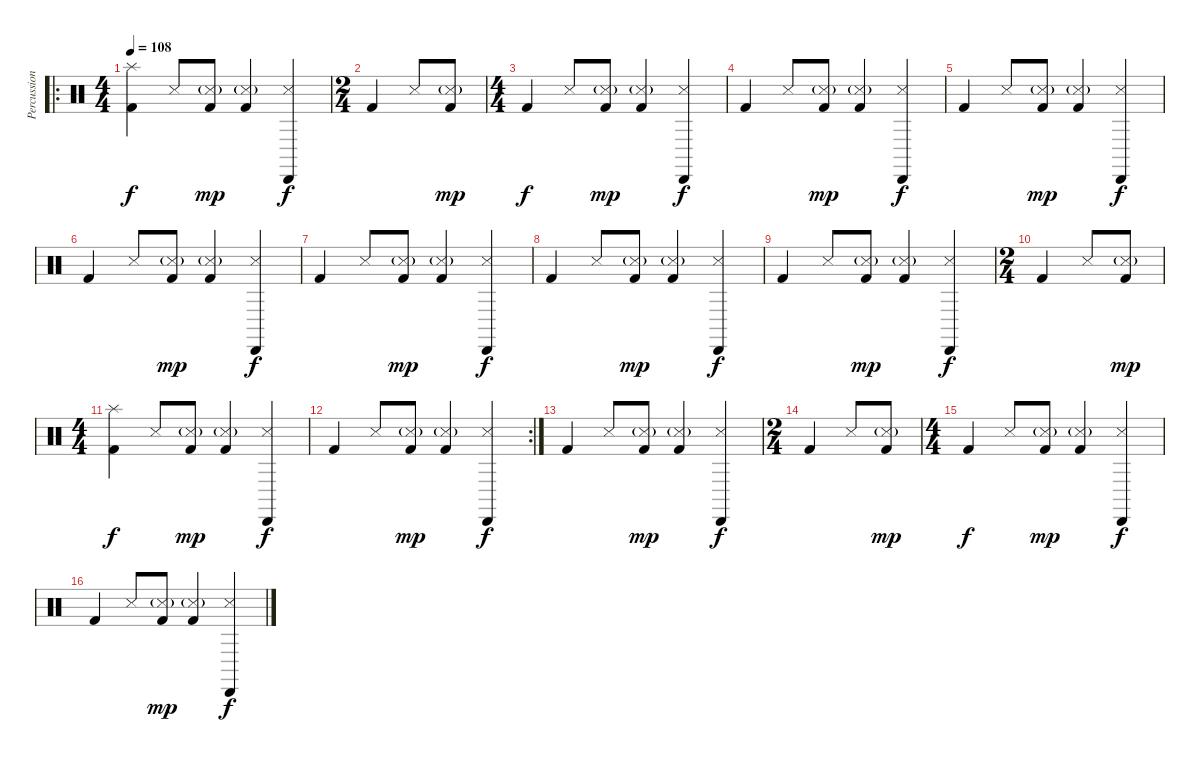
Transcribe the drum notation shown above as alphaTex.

\track ("Percussions" "Percussion") {instrument percussion}
\staff {score}
\articulation defaults
\ro
\ts (4 4)
\tempo 108
\clef neutral
\ks c
("Kick (hit) 2" "Splash (hit)").4{dy f} "Metronome (hit)".8 ("Metronome (hit)"{g} "Kick (hit) 2").8{dy mp} ("Snare (side stick) 3"{g} "Kick (hit) 2").4 ("Cabasa (hit)" "Metronome (hit)").4{dy f} |
\ts (2 4)
"Kick (hit) 2".4 "Metronome (hit)".8 ("Metronome (hit)"{g} "Kick (hit) 2").8{dy mp} |
\ts (4 4)
"Kick (hit) 2".4{dy f} "Metronome (hit)".8 ("Metronome (hit)"{g} "Kick (hit) 2").8{dy mp} ("Snare (side stick) 3"{g} "Kick (hit) 2").4 ("Cabasa (hit)" "Metronome (hit)").4{dy f} |
"Kick (hit) 2".4 "Metronome (hit)".8 ("Metronome (hit)"{g} "Kick (hit) 2").8{dy mp} ("Snare (side stick) 3"{g} "Kick (hit) 2").4 ("Cabasa (hit)" "Metronome (hit)").4{dy f} |
"Kick (hit) 2".4 "Metronome (hit)".8 ("Metronome (hit)"{g} "Kick (hit) 2").8{dy mp} ("Snare (side stick) 3"{g} "Kick (hit) 2").4 ("Cabasa (hit)" "Metronome (hit)").4{dy f} |
"Kick (hit) 2".4 "Metronome (hit)".8 ("Metronome (hit)"{g} "Kick (hit) 2").8{dy mp} ("Snare (side stick) 3"{g} "Kick (hit) 2").4 ("Cabasa (hit)" "Metronome (hit)").4{dy f} |
"Kick (hit) 2".4 "Metronome (hit)".8 ("Metronome (hit)"{g} "Kick (hit) 2").8{dy mp} ("Snare (side stick) 3"{g} "Kick (hit) 2").4 ("Cabasa (hit)" "Metronome (hit)").4{dy f} |
"Kick (hit) 2".4 "Metronome (hit)".8 ("Metronome (hit)"{g} "Kick (hit) 2").8{dy mp} ("Snare (side stick) 3"{g} "Kick (hit) 2").4 ("Cabasa (hit)" "Metronome (hit)").4{dy f} |
"Kick (hit) 2".4 "Metronome (hit)".8 ("Metronome (hit)"{g} "Kick (hit) 2").8{dy mp} ("Snare (side stick) 3"{g} "Kick (hit) 2").4 ("Cabasa (hit)" "Metronome (hit)").4{dy f} |
\ts (2 4)
"Kick (hit) 2".4 "Metronome (hit)".8 ("Metronome (hit)"{g} "Kick (hit) 2").8{dy mp} |
\ts (4 4)
("Kick (hit) 2" "Splash (hit)").4{dy f} "Metronome (hit)".8 ("Metronome (hit)"{g} "Kick (hit) 2").8{dy mp} ("Snare (side stick) 3"{g} "Kick (hit) 2").4 ("Cabasa (hit)" "Metronome (hit)").4{dy f} |
\rc 2 "Kick (hit) 2".4 "Metronome (hit)".8
("Metronome (hit)"{g} "Kick (hit) 2").8{dy mp} ("Snare (side stick) 3"{g} "Kick (hit) 2").4 ("Cabasa (hit)" "Metronome (hit)").4{dy f} |
"Kick (hit) 2".4 "Metronome (hit)".8 ("Metronome (hit)"{g} "Kick (hit) 2").8{dy mp} ("Snare (side stick) 3"{g} "Kick (hit) 2").4 ("Cabasa (hit)" "Metronome (hit)").4{dy f} |
\ts (2 4)
"Kick (hit) 2".4 "Metronome (hit)".8 ("Metronome (hit)"{g} "Kick (hit) 2").8{dy mp} |
\ts (4 4)
"Kick (hit) 2".4{dy f} "Metronome (hit)".8 ("Metronome (hit)"{g} "Kick (hit) 2").8{dy mp} ("Snare (side stick) 3"{g} "Kick (hit) 2").4 ("Cabasa (hit)" "Metronome (hit)").4{dy f} |
"Kick (hit) 2".4 "Metronome (hit)".8 ("Metronome (hit)"{g} "Kick (hit) 2").8{dy mp} ("Snare (side stick) 3"{g} "Kick (hit) 2").4 ("Cabasa (hit)" "Metronome (hit)").4{dy f}
